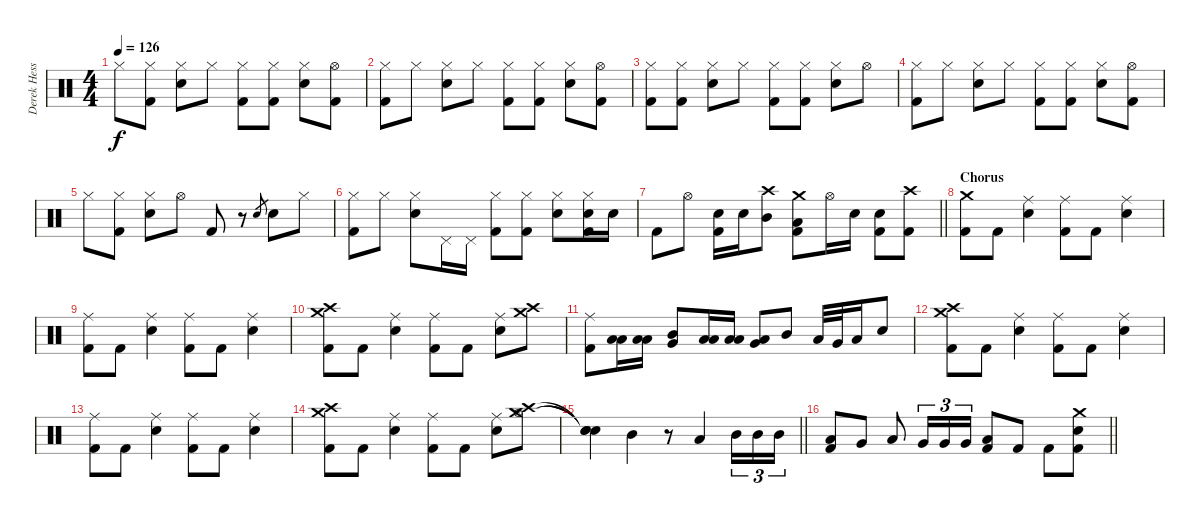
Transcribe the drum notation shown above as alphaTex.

\track ("Derek Hess (Drums and Percussion)" "Derek Hess") {instrument percussion}
\staff {score}
\articulation defaults
\ts (4 4)
\tempo 126
\clef neutral
\ks c "Hi-Hat (closed)".8{dy f}
("Hi-Hat (closed)" "Kick (hit) 2").8 ("Electric Snare (hit)" "Hi-Hat (closed)").8 "Hi-Hat (closed)".8 ("Hi-Hat (closed)" "Kick (hit) 2").8 ("Hi-Hat (closed)" "Kick (hit) 2").8 ("Electric Snare (hit)" "Hi-Hat (closed)").8 ("Hi-Hat (open)" "Kick (hit) 2").8 |
("Hi-Hat (closed)" "Kick (hit) 2").8 "Hi-Hat (closed)".8 ("Electric Snare (hit)" "Hi-Hat (closed)").8 "Hi-Hat (closed)".8 ("Hi-Hat (closed)" "Kick (hit) 2").8 ("Hi-Hat (closed)" "Kick (hit) 2").8 ("Electric Snare (hit)" "Hi-Hat (closed)").8 ("Hi-Hat (open)" "Kick (hit) 2").8 |
("Hi-Hat (closed)" "Kick (hit) 2").8 ("Hi-Hat (closed)" "Kick (hit) 2").8 ("Electric Snare (hit)" "Hi-Hat (closed)").8 "Hi-Hat (closed)".8 ("Hi-Hat (closed)" "Kick (hit) 2").8 ("Hi-Hat (closed)" "Kick (hit) 2").8 ("Electric Snare (hit)" "Hi-Hat (closed)").8 "Hi-Hat (open)".8 |
("Hi-Hat (closed)" "Kick (hit) 2").8 "Hi-Hat (closed)".8 ("Electric Snare (hit)" "Hi-Hat (closed)").8 "Hi-Hat (closed)".8 ("Hi-Hat (closed)" "Kick (hit) 2").8 ("Hi-Hat (closed)" "Kick (hit) 2").8 ("Electric Snare (hit)" "Hi-Hat (closed)").8 ("Hi-Hat (open)" "Kick (hit) 2").8 |
"Hi-Hat (closed)".8 ("Hi-Hat (closed)" "Kick (hit) 2").8 ("Electric Snare (hit)" "Hi-Hat (closed)").8 "Hi-Hat (open)".8 "Kick (hit) 2".8 r.8 "Electric Snare (hit)".8{gr} "Electric Snare (hit)".8 "Hi-Hat (closed)".8 |
("Hi-Hat (closed)" "Kick (hit) 2").8 "Hi-Hat (closed)".8 ("Electric Snare (hit)" "Hi-Hat (closed)").8 "Pedal Hi-Hat (hit)".16 "Pedal Hi-Hat (hit)".16 ("Hi-Hat (closed)" "Kick (hit) 2").8 ("Hi-Hat (closed)" "Kick (hit) 2").8 ("Electric Snare (hit)" "Hi-Hat (closed)").8 ("Electric Snare (hit)" "Hi-Hat (closed)" "Kick (hit) 2").16 "Electric Snare (hit)".16 |
\barLineRight lightlight "Kick (hit) 2".8 "Hi-Hat (open)".8
("Electric Snare (hit)" "Kick (hit) 2").16 "Electric Snare (hit)".16 ("Crash high (hit)" "Mid Tom (hit)").8 ("Crash medium (hit)" "Low Tom (hit)" "Kick (hit) 2").8 "Hi-Hat (open)".16 "Electric Snare (hit)".16 ("Electric Snare (hit)" "Kick (hit) 2").8 ("Crash high (hit)" "Kick (hit) 2").8 |
\section ("" "Chorus")
("Crash medium (hit)" "Kick (hit) 2").8 "Kick (hit) 2".8 ("Ride (middle)" "Snare (hit) 2").4 ("Ride (middle)" "Kick (hit) 2").8 "Kick (hit) 2".8 ("Ride (middle)" "Snare (hit) 2").4 |
("Ride (middle)" "Kick (hit) 2").8 "Kick (hit) 2".8 ("Ride (middle)" "Snare (hit) 2").4 ("Ride (middle)" "Kick (hit) 2").8 "Kick (hit) 2".8 ("Ride (middle)" "Snare (hit) 2").4 |
("Crash high (hit)" "Crash medium (hit)" "Kick (hit) 2").8 "Kick (hit) 2".8 ("Ride (middle)" "Snare (hit) 2").4 ("Ride (middle)" "Kick (hit) 2").8 "Kick (hit) 2".8 ("Ride (middle)" "Snare (hit) 2").8 ("Crash high (hit)" "Crash medium (hit)").8 |
("Ride (middle)" "Kick (hit) 2").8 ("Low Floor Tom (hit)" "Low Tom (hit)").16 ("Low Floor Tom (hit)" "Low Tom (hit)").16 ("Very Low Tom (hit)" "Mid Tom (hit)").8 ("Low Floor Tom (hit)" "Low Tom (hit)").16 ("Low Floor Tom (hit)" "Low Tom (hit)").16 ("Low Tom (hit)" "Very Low Tom (hit)").8 "Mid Tom (hit)".8 "Low Tom (hit)".32 "Very Low Tom (hit)".32 "Low Floor Tom (hit)".16 "Snare (hit) 2".8 |
("Crash high (hit)" "Crash medium (hit)" "Kick (hit) 2").8 "Kick (hit) 2".8 ("Ride (middle)" "Snare (hit) 2").4 ("Ride (middle)" "Kick (hit) 2").8 "Kick (hit) 2".8 ("Ride (middle)" "Snare (hit) 2").4 |
("Ride (middle)" "Kick (hit) 2").8 "Kick (hit) 2".8 ("Ride (middle)" "Snare (hit) 2").4 ("Ride (middle)" "Kick (hit) 2").8 "Kick (hit) 2".8 ("Ride (middle)" "Snare (hit) 2").4 |
("Crash high (hit)" "Crash medium (hit)" "Kick (hit) 2").8 "Kick (hit) 2".8 ("Ride (middle)" "Snare (hit) 2").4 ("Ride (middle)" "Kick (hit) 2").8 "Kick (hit) 2".8 ("Ride (middle)" "Snare (hit) 2").8 ("Crash medium (hit)" "Crash high (hit)" "Hi-Hat (open)").8 |
\barLineRight lightlight
("Snare (hit)"{t} "Snare (hit)"{t} "Snare (hit)"{t}).4 "Mid Tom (hit)".4 r.8 "Low Tom (hit)".4 "Mid Tom (hit)".16{tu (3 2)} "Mid Tom (hit)".16{tu (3 2)} "Mid Tom (hit)".16{tu (3 2)} |
\barLineRight lightlight
("Low Tom (hit)" "Kick (hit) 2").8 "Very Low Tom (hit)".8 "Low Floor Tom (hit)".8 "Very Low Tom (hit)".16{tu (3 2)} "Very Low Tom (hit)".16{tu (3 2)} "Very Low Tom (hit)".16{tu (3 2)} ("Low Floor Tom (hit)" "Kick (hit) 2").8 "Kick (hit) 2".8 "Kick (hit) 2".8 ("Crash medium (hit)" "Electric Snare (hit)" "Kick (hit) 2").8
